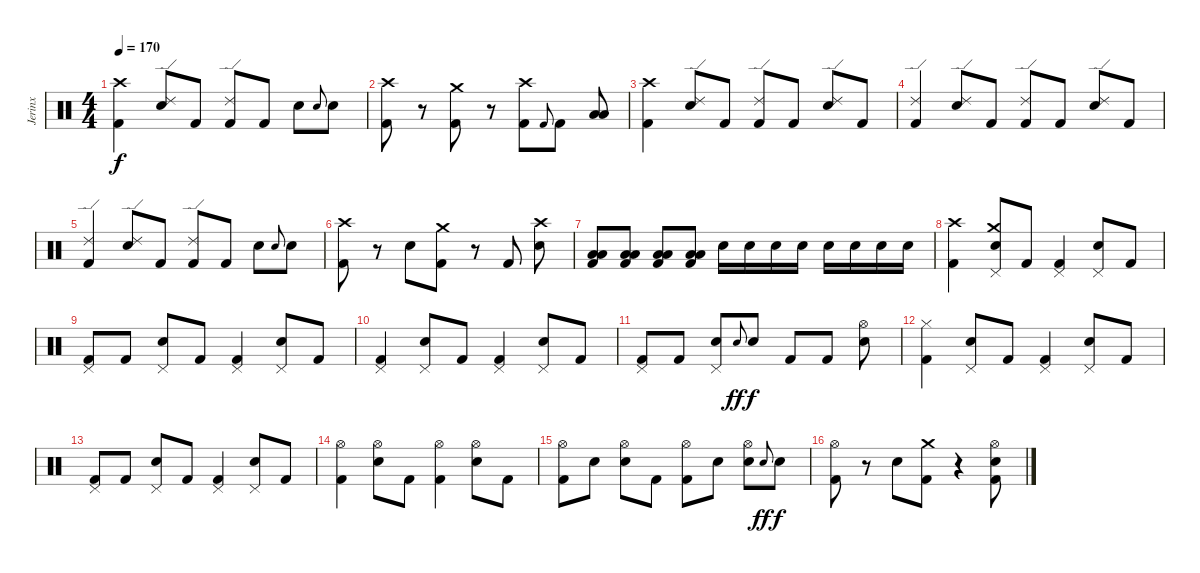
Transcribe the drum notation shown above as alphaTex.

\track ("Jerinx" "Jerinx") {instrument percussion}
\staff {score}
\articulation defaults
\ts (4 4)
\tempo 170
\clef neutral
\ks c
("Kick (hit) 2" "Crash high (hit)").4{dy f} ("Electric Snare (hit)" "Ride (edge) 2").8 "Kick (hit) 2".8 ("Kick (hit) 2" "Ride (edge) 2").8 "Kick (hit) 2".8 "Electric Snare (hit)".8 "Electric Snare (hit)".8{gr onbeat} "Electric Snare (hit)".8 |
("Kick (hit) 2" "Crash high (hit)").8 r.8 ("Kick (hit) 2" "Crash medium (hit)").8 r.8 ("Kick (hit) 2" "Crash high (hit)").8 "Kick (hit) 2".8{gr onbeat} "Kick (hit) 2".8 ("Low Floor Tom (hit)" "Low Tom (hit)").8 |
("Kick (hit) 2" "Crash high (hit)").4 ("Electric Snare (hit)" "Ride (edge) 2").8 "Kick (hit) 2".8 ("Kick (hit) 2" "Ride (edge) 2").8 "Kick (hit) 2".8 ("Electric Snare (hit)" "Ride (edge) 2").8 "Kick (hit) 2".8 |
("Kick (hit) 2" "Ride (edge) 2").4 ("Electric Snare (hit)" "Ride (edge) 2").8 "Kick (hit) 2".8 ("Kick (hit) 2" "Ride (edge) 2").8 "Kick (hit) 2".8 ("Electric Snare (hit)" "Ride (edge) 2").8 "Kick (hit) 2".8 |
("Kick (hit) 2" "Ride (edge) 2").4 ("Electric Snare (hit)" "Ride (edge) 2").8 "Kick (hit) 2".8 ("Kick (hit) 2" "Ride (edge) 2").8 "Kick (hit) 2".8 "Electric Snare (hit)".8 "Electric Snare (hit)".8{gr onbeat} "Electric Snare (hit)".8 |
("Kick (hit) 2" "Crash high (hit)").8 r.8 "Electric Snare (hit)".8 ("Kick (hit) 2" "Crash medium (hit)").8 r.8 "Kick (hit) 2".8 ("Electric Snare (hit)" "Crash high (hit)").8 |
("Kick (hit) 2" "Low Floor Tom (hit)" "Low Tom (hit)").8 ("Kick (hit) 2" "Low Floor Tom (hit)" "Low Tom (hit)").8 ("Kick (hit) 2" "Low Floor Tom (hit)" "Low Tom (hit)").8 ("Kick (hit) 2" "Low Floor Tom (hit)" "Low Tom (hit)").8 "Electric Snare (hit)".16 "Electric Snare (hit)".16 "Electric Snare (hit)".16 "Electric Snare (hit)".16 "Electric Snare (hit)".16 "Electric Snare (hit)".16 "Electric Snare (hit)".16 "Electric Snare (hit)".16 |
("Kick (hit) 2" "Crash high (hit)").4 ("Electric Snare (hit)" "Pedal Hi-Hat (hit)" "Crash medium (hit)").8 "Kick (hit) 2".8 ("Kick (hit) 2" "Pedal Hi-Hat (hit)").4 ("Electric Snare (hit)" "Pedal Hi-Hat (hit)").8 "Kick (hit) 2".8 |
("Kick (hit) 2" "Pedal Hi-Hat (hit)").8 "Kick (hit) 2".8 ("Electric Snare (hit)" "Pedal Hi-Hat (hit)").8 "Kick (hit) 2".8 ("Kick (hit) 2" "Pedal Hi-Hat (hit)").4 ("Electric Snare (hit)" "Pedal Hi-Hat (hit)").8 "Kick (hit) 2".8 |
("Kick (hit) 2" "Pedal Hi-Hat (hit)").4 ("Electric Snare (hit)" "Pedal Hi-Hat (hit)").8 "Kick (hit) 2".8 ("Kick (hit) 2" "Pedal Hi-Hat (hit)").4 ("Electric Snare (hit)" "Pedal Hi-Hat (hit)").8 "Kick (hit) 2".8 |
("Kick (hit) 2" "Pedal Hi-Hat (hit)").8 "Kick (hit) 2".8 ("Electric Snare (hit)" "Pedal Hi-Hat (hit)").8 "Electric Snare (hit)".8{gr onbeat dy ff} "Electric Snare (hit)".8{dy f} "Kick (hit) 2".8 "Kick (hit) 2".8 ("Electric Snare (hit)" "Hi-Hat (open)").8 |
("Kick (hit) 2" "Hi-Hat (closed)").4 ("Electric Snare (hit)" "Pedal Hi-Hat (hit)").8 "Kick (hit) 2".8 ("Kick (hit) 2" "Pedal Hi-Hat (hit)").4 ("Electric Snare (hit)" "Pedal Hi-Hat (hit)").8 "Kick (hit) 2".8 |
("Kick (hit) 2" "Pedal Hi-Hat (hit)").8 "Kick (hit) 2".8 ("Electric Snare (hit)" "Pedal Hi-Hat (hit)").8 "Kick (hit) 2".8 ("Kick (hit) 2" "Pedal Hi-Hat (hit)").4 ("Electric Snare (hit)" "Pedal Hi-Hat (hit)").8 "Kick (hit) 2".8 |
("Kick (hit) 2" "Hi-Hat (open)").4 ("Electric Snare (hit)" "Hi-Hat (open)").8 "Kick (hit) 2".8 ("Kick (hit) 2" "Hi-Hat (open)").4 ("Electric Snare (hit)" "Hi-Hat (open)").8 "Kick (hit) 2".8 |
("Kick (hit) 2" "Hi-Hat (open)").8 "Electric Snare (hit)".8 ("Electric Snare (hit)" "Hi-Hat (open)").8 "Kick (hit) 2".8 ("Kick (hit) 2" "Hi-Hat (open)").8 "Electric Snare (hit)".8 ("Electric Snare (hit)" "Hi-Hat (open)").8 "Electric Snare (hit)"{h}.8{gr onbeat dy ff} "Electric Snare (hit)".8{dy f} |
("Kick (hit) 2" "Hi-Hat (open)").8 r.8 "Electric Snare (hit)".8 ("Kick (hit) 2" "Crash medium (hit)").8 r.4 ("Kick (hit) 2" "Electric Snare (hit)" "Hi-Hat (open)").8
